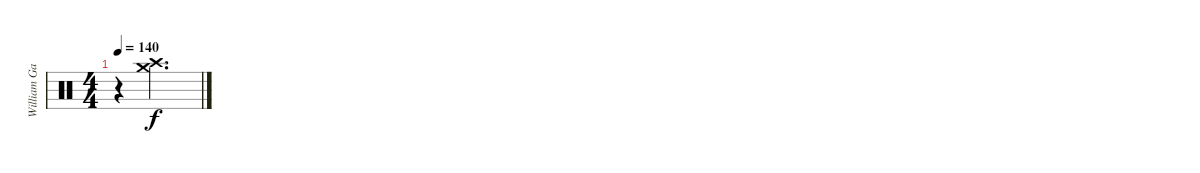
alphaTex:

\track ("William Gates (Drums)" "William Ga") {instrument percussion}
\staff {score}
\articulation defaults
\ts (4 4)
\tempo 140
\clef neutral
\ks c
r.4{dy ff} ("Crash medium (hit)" "Crash high (hit)").2{d dy f}
